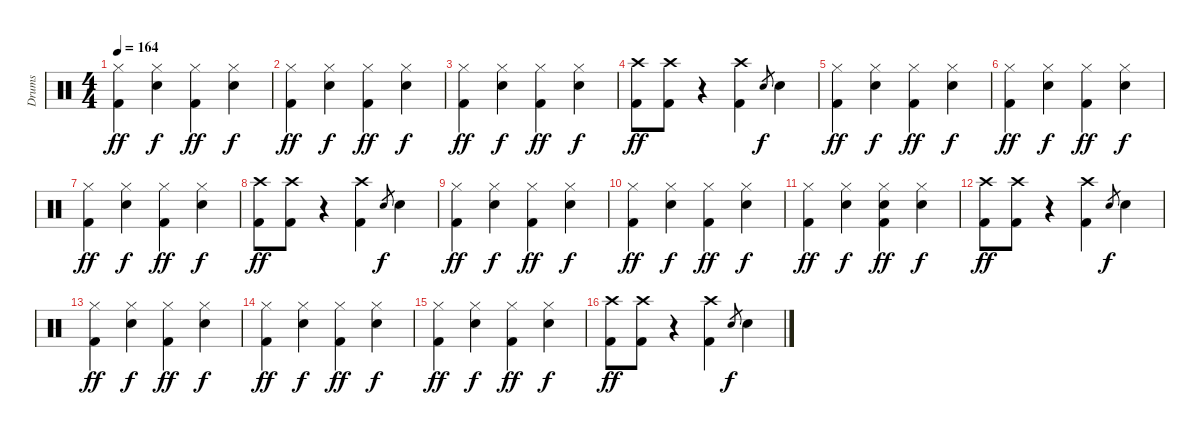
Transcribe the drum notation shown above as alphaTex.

\track ("Drums" "Drums") {instrument percussion}
\staff {score}
\articulation defaults
\ts (4 4)
\tempo 164
\clef neutral
\ks c
("Hi-Hat (closed)" "Kick (hit) 2").4{dy ff} ("Hi-Hat (closed)" "Snare (hit) 2").4{dy f} ("Hi-Hat (closed)" "Kick (hit) 2").4{dy ff} ("Hi-Hat (closed)" "Snare (hit) 2").4{dy f} |
("Hi-Hat (closed)" "Kick (hit) 2").4{dy ff} ("Hi-Hat (closed)" "Snare (hit) 2").4{dy f} ("Hi-Hat (closed)" "Kick (hit) 2").4{dy ff} ("Hi-Hat (closed)" "Snare (hit) 2").4{dy f} |
("Hi-Hat (closed)" "Kick (hit) 2").4{dy ff} ("Hi-Hat (closed)" "Snare (hit) 2").4{dy f} ("Hi-Hat (closed)" "Kick (hit) 2").4{dy ff} ("Hi-Hat (closed)" "Snare (hit) 2").4{dy f} |
("Crash high (hit)" "Kick (hit) 2").8{dy ff} ("Crash high (hit)" "Kick (hit) 2").8 r.4 ("Crash high (hit)" "Kick (hit) 2").4 "Snare (hit) 2".8{gr dy f} "Snare (hit) 2".4 |
("Hi-Hat (closed)" "Kick (hit) 2").4{dy ff} ("Hi-Hat (closed)" "Snare (hit) 2").4{dy f} ("Hi-Hat (closed)" "Kick (hit) 2").4{dy ff} ("Hi-Hat (closed)" "Snare (hit) 2").4{dy f} |
("Hi-Hat (closed)" "Kick (hit) 2").4{dy ff} ("Hi-Hat (closed)" "Snare (hit) 2").4{dy f} ("Hi-Hat (closed)" "Kick (hit) 2").4{dy ff} ("Hi-Hat (closed)" "Snare (hit) 2").4{dy f} |
("Hi-Hat (closed)" "Kick (hit) 2").4{dy ff} ("Hi-Hat (closed)" "Snare (hit) 2").4{dy f} ("Hi-Hat (closed)" "Kick (hit) 2").4{dy ff} ("Hi-Hat (closed)" "Snare (hit) 2").4{dy f} |
("Crash high (hit)" "Kick (hit) 2").8{dy ff} ("Crash high (hit)" "Kick (hit) 2").8 r.4 ("Crash high (hit)" "Kick (hit) 2").4 "Snare (hit) 2".8{gr dy f} "Snare (hit) 2".4 |
("Hi-Hat (closed)" "Kick (hit) 2").4{dy ff} ("Hi-Hat (closed)" "Snare (hit) 2").4{dy f} ("Hi-Hat (closed)" "Kick (hit) 2").4{dy ff} ("Hi-Hat (closed)" "Snare (hit) 2").4{dy f} |
("Hi-Hat (closed)" "Kick (hit) 2").4{dy ff} ("Hi-Hat (closed)" "Snare (hit) 2").4{dy f} ("Hi-Hat (closed)" "Kick (hit) 2").4{dy ff} ("Hi-Hat (closed)" "Snare (hit) 2").4{dy f} |
("Hi-Hat (closed)" "Kick (hit) 2").4{dy ff} ("Hi-Hat (closed)" "Snare (hit) 2").4{dy f} ("Hi-Hat (closed)" "Snare (hit) 2" "Kick (hit) 2").4{dy ff} ("Hi-Hat (closed)" "Snare (hit) 2").4{dy f} |
("Crash high (hit)" "Kick (hit) 2").8{dy ff} ("Crash high (hit)" "Kick (hit) 2").8 r.4 ("Crash high (hit)" "Kick (hit) 2").4 "Snare (hit) 2".8{gr dy f} "Snare (hit) 2".4 |
("Hi-Hat (closed)" "Kick (hit) 2").4{dy ff} ("Hi-Hat (closed)" "Snare (hit) 2").4{dy f} ("Hi-Hat (closed)" "Kick (hit) 2").4{dy ff} ("Hi-Hat (closed)" "Snare (hit) 2").4{dy f} |
("Hi-Hat (closed)" "Kick (hit) 2").4{dy ff} ("Hi-Hat (closed)" "Snare (hit) 2").4{dy f} ("Hi-Hat (closed)" "Kick (hit) 2").4{dy ff} ("Hi-Hat (closed)" "Snare (hit) 2").4{dy f} |
("Hi-Hat (closed)" "Kick (hit) 2").4{dy ff} ("Hi-Hat (closed)" "Snare (hit) 2").4{dy f} ("Hi-Hat (closed)" "Kick (hit) 2").4{dy ff} ("Hi-Hat (closed)" "Snare (hit) 2").4{dy f} |
("Crash high (hit)" "Kick (hit) 2").8{dy ff} ("Crash high (hit)" "Kick (hit) 2").8 r.4 ("Crash high (hit)" "Kick (hit) 2").4 "Snare (hit) 2".8{gr dy f} "Snare (hit) 2".4
